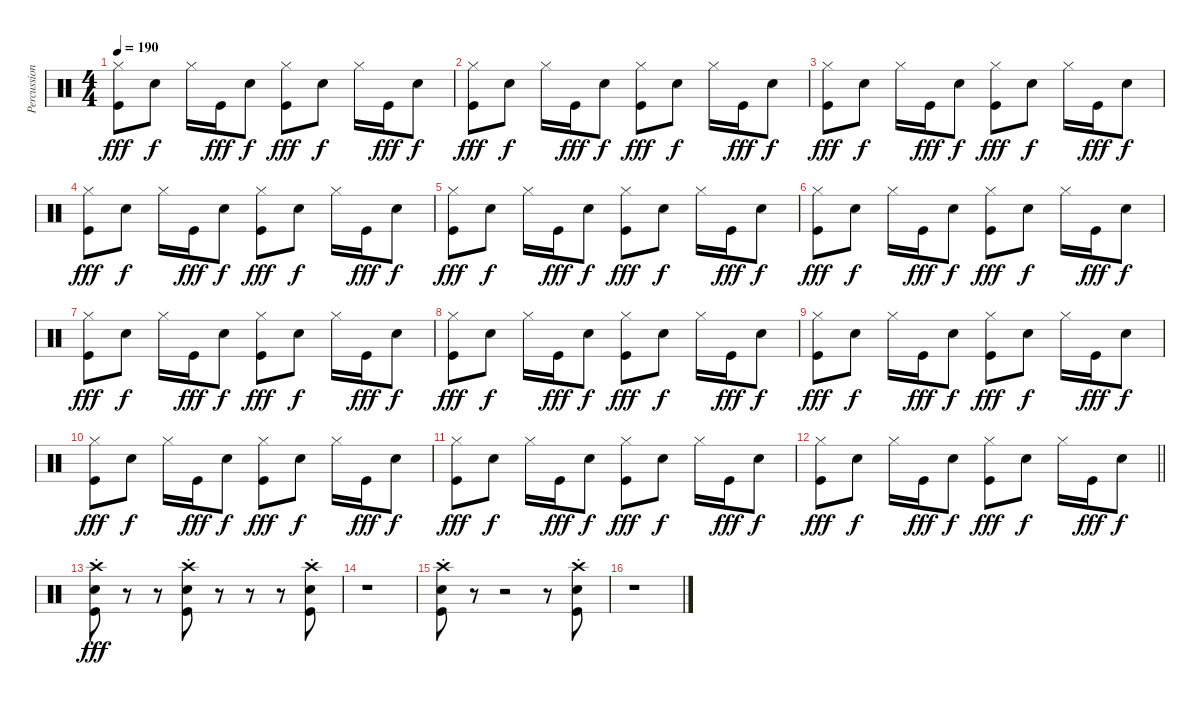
\track ("Percussioni" "Percussion") {instrument percussion}
\staff {score}
\articulation defaults
\ts (4 4)
\tempo 190
\clef neutral
\ks c
("Kick (hit)" "Hi-Hat (closed)").8{dy fff} "Snare (hit) 2".8{dy f} "Hi-Hat (closed)".16 "Kick (hit)".16{dy fff} "Snare (hit) 2".8{dy f} ("Kick (hit)" "Hi-Hat (closed)").8{dy fff} "Snare (hit) 2".8{dy f} "Hi-Hat (closed)".16 "Kick (hit)".16{dy fff} "Snare (hit) 2".8{dy f} |
("Kick (hit)" "Hi-Hat (closed)").8{dy fff} "Snare (hit) 2".8{dy f} "Hi-Hat (closed)".16 "Kick (hit)".16{dy fff} "Snare (hit) 2".8{dy f} ("Kick (hit)" "Hi-Hat (closed)").8{dy fff} "Snare (hit) 2".8{dy f} "Hi-Hat (closed)".16 "Kick (hit)".16{dy fff} "Snare (hit) 2".8{dy f} |
("Kick (hit)" "Hi-Hat (closed)").8{dy fff} "Snare (hit) 2".8{dy f} "Hi-Hat (closed)".16 "Kick (hit)".16{dy fff} "Snare (hit) 2".8{dy f} ("Kick (hit)" "Hi-Hat (closed)").8{dy fff} "Snare (hit) 2".8{dy f} "Hi-Hat (closed)".16 "Kick (hit)".16{dy fff} "Snare (hit) 2".8{dy f} |
("Kick (hit)" "Hi-Hat (closed)").8{dy fff} "Snare (hit) 2".8{dy f} "Hi-Hat (closed)".16 "Kick (hit)".16{dy fff} "Snare (hit) 2".8{dy f} ("Kick (hit)" "Hi-Hat (closed)").8{dy fff} "Snare (hit) 2".8{dy f} "Hi-Hat (closed)".16 "Kick (hit)".16{dy fff} "Snare (hit) 2".8{dy f} |
("Kick (hit)" "Hi-Hat (closed)").8{dy fff} "Snare (hit) 2".8{dy f} "Hi-Hat (closed)".16 "Kick (hit)".16{dy fff} "Snare (hit) 2".8{dy f} ("Kick (hit)" "Hi-Hat (closed)").8{dy fff} "Snare (hit) 2".8{dy f} "Hi-Hat (closed)".16 "Kick (hit)".16{dy fff} "Snare (hit) 2".8{dy f} |
("Kick (hit)" "Hi-Hat (closed)").8{dy fff} "Snare (hit) 2".8{dy f} "Hi-Hat (closed)".16 "Kick (hit)".16{dy fff} "Snare (hit) 2".8{dy f} ("Kick (hit)" "Hi-Hat (closed)").8{dy fff} "Snare (hit) 2".8{dy f} "Hi-Hat (closed)".16 "Kick (hit)".16{dy fff} "Snare (hit) 2".8{dy f} |
("Kick (hit)" "Hi-Hat (closed)").8{dy fff} "Snare (hit) 2".8{dy f} "Hi-Hat (closed)".16 "Kick (hit)".16{dy fff} "Snare (hit) 2".8{dy f} ("Kick (hit)" "Hi-Hat (closed)").8{dy fff} "Snare (hit) 2".8{dy f} "Hi-Hat (closed)".16 "Kick (hit)".16{dy fff} "Snare (hit) 2".8{dy f} |
("Kick (hit)" "Hi-Hat (closed)").8{dy fff} "Snare (hit) 2".8{dy f} "Hi-Hat (closed)".16 "Kick (hit)".16{dy fff} "Snare (hit) 2".8{dy f} ("Kick (hit)" "Hi-Hat (closed)").8{dy fff} "Snare (hit) 2".8{dy f} "Hi-Hat (closed)".16 "Kick (hit)".16{dy fff} "Snare (hit) 2".8{dy f} |
("Kick (hit)" "Hi-Hat (closed)").8{dy fff} "Snare (hit) 2".8{dy f} "Hi-Hat (closed)".16 "Kick (hit)".16{dy fff} "Snare (hit) 2".8{dy f} ("Kick (hit)" "Hi-Hat (closed)").8{dy fff} "Snare (hit) 2".8{dy f} "Hi-Hat (closed)".16 "Kick (hit)".16{dy fff} "Snare (hit) 2".8{dy f} |
("Kick (hit)" "Hi-Hat (closed)").8{dy fff} "Snare (hit) 2".8{dy f} "Hi-Hat (closed)".16 "Kick (hit)".16{dy fff} "Snare (hit) 2".8{dy f} ("Kick (hit)" "Hi-Hat (closed)").8{dy fff} "Snare (hit) 2".8{dy f} "Hi-Hat (closed)".16 "Kick (hit)".16{dy fff} "Snare (hit) 2".8{dy f} |
("Kick (hit)" "Hi-Hat (closed)").8{dy fff} "Snare (hit) 2".8{dy f} "Hi-Hat (closed)".16 "Kick (hit)".16{dy fff} "Snare (hit) 2".8{dy f} ("Kick (hit)" "Hi-Hat (closed)").8{dy fff} "Snare (hit) 2".8{dy f} "Hi-Hat (closed)".16 "Kick (hit)".16{dy fff} "Snare (hit) 2".8{dy f} |
\barLineRight lightlight
("Kick (hit)" "Hi-Hat (closed)").8{dy fff} "Snare (hit) 2".8{dy f} "Hi-Hat (closed)".16 "Kick (hit)".16{dy fff} "Snare (hit) 2".8{dy f} ("Kick (hit)" "Hi-Hat (closed)").8{dy fff} "Snare (hit) 2".8{dy f} "Hi-Hat (closed)".16 "Kick (hit)".16{dy fff} "Snare (hit) 2".8{dy f} |
("Snare (hit) 2"{st} "Kick (hit)"{st} "Crash high (hit)"{st}).8{dy fff} r.8 r.8 ("Snare (hit) 2"{st} "Kick (hit)"{st} "Crash high (hit)"{st}).8 r.8 r.8 r.8 ("Snare (hit) 2"{st} "Kick (hit)"{st} "Crash high (hit)"{st}).8 |
r.1 |
("Snare (hit) 2"{st} "Kick (hit)"{st} "Crash high (hit)"{st}).8 r.8 r.2 r.8 ("Snare (hit) 2"{st} "Kick (hit)"{st} "Crash high (hit)"{st}).8 |
r.1
